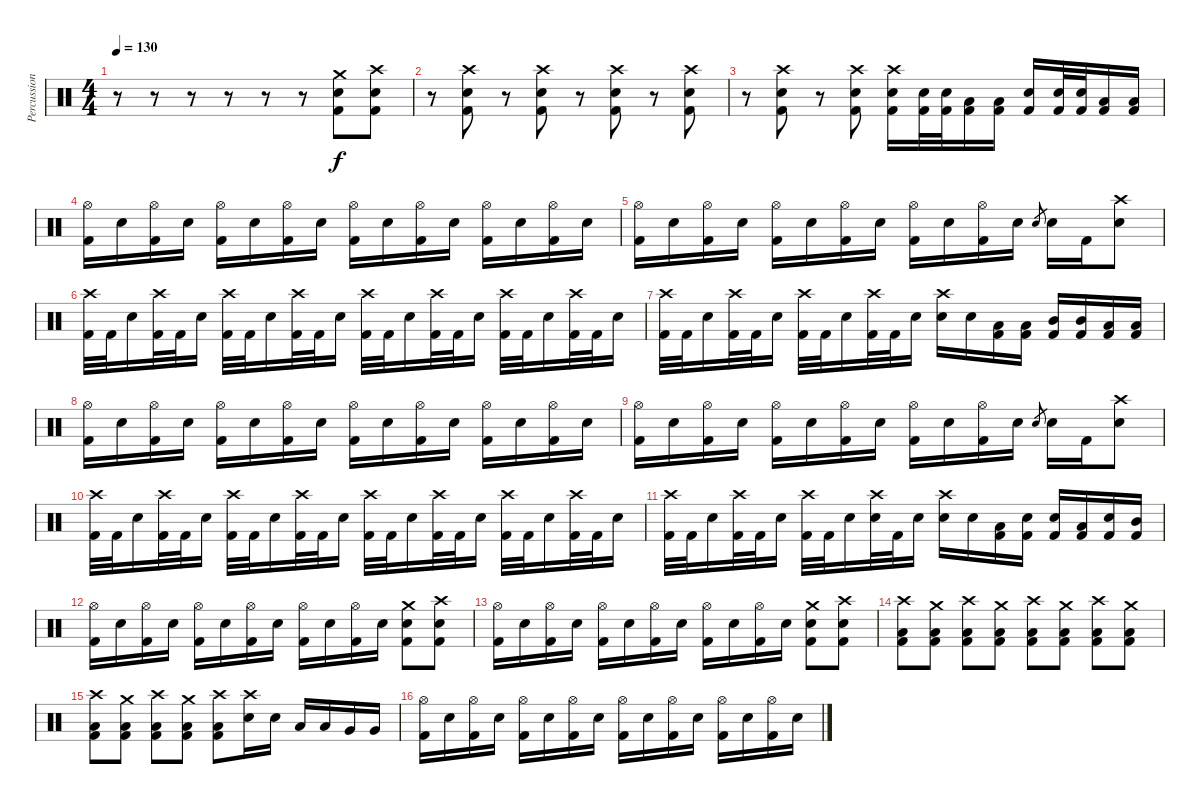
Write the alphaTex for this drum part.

\track ("Percussion" "Percussion") {instrument percussion}
\staff {score}
\articulation defaults
\ts (4 4)
\tempo 130
\clef neutral
\ks c
r.8{dy f} r.8 r.8 r.8 r.8 r.8 ("Crash medium (hit)" "Electric Snare (hit)" "Kick (hit) 2").8 ("Crash high (hit)" "Electric Snare (hit)" "Kick (hit) 2").8 |
r.8 ("Crash high (hit)" "Electric Snare (hit)" "Kick (hit) 2").8 r.8 ("Crash high (hit)" "Electric Snare (hit)" "Kick (hit) 2").8 r.8 ("Crash high (hit)" "Electric Snare (hit)" "Kick (hit) 2").8 r.8 ("Crash high (hit)" "Electric Snare (hit)" "Kick (hit) 2").8 |
r.8 ("Crash high (hit)" "Electric Snare (hit)" "Kick (hit) 2").8 r.8 ("Crash high (hit)" "Electric Snare (hit)" "Kick (hit) 2").8 ("Crash high (hit)" "Electric Snare (hit)" "Kick (hit) 2").16 ("Electric Snare (hit)" "Kick (hit) 2").32 ("Electric Snare (hit)" "Kick (hit) 2").32 ("Low Tom (hit)" "Kick (hit) 2").16 ("Low Tom (hit)" "Kick (hit) 2").16 ("Electric Snare (hit)" "Kick (hit) 2").16 ("Electric Snare (hit)" "Kick (hit) 2").32 ("Electric Snare (hit)" "Kick (hit) 2").32 ("Low Tom (hit)" "Kick (hit) 2").16 ("Low Tom (hit)" "Kick (hit) 2").16 |
("Hi-Hat (open)" "Kick (hit) 2").16 "Electric Snare (hit)".16 ("Hi-Hat (open)" "Kick (hit) 2").16 "Electric Snare (hit)".16 ("Hi-Hat (open)" "Kick (hit) 2").16 "Electric Snare (hit)".16 ("Hi-Hat (open)" "Kick (hit) 2").16 "Electric Snare (hit)".16 ("Hi-Hat (open)" "Kick (hit) 2").16 "Electric Snare (hit)".16 ("Hi-Hat (open)" "Kick (hit) 2").16 "Electric Snare (hit)".16 ("Hi-Hat (open)" "Kick (hit) 2").16 "Electric Snare (hit)".16 ("Hi-Hat (open)" "Kick (hit) 2").16 "Electric Snare (hit)".16 |
("Hi-Hat (open)" "Kick (hit) 2").16 "Electric Snare (hit)".16 ("Hi-Hat (open)" "Kick (hit) 2").16 "Electric Snare (hit)".16 ("Hi-Hat (open)" "Kick (hit) 2").16 "Electric Snare (hit)".16 ("Hi-Hat (open)" "Kick (hit) 2").16 "Electric Snare (hit)".16 ("Hi-Hat (open)" "Kick (hit) 2").16 "Electric Snare (hit)".16 ("Hi-Hat (open)" "Kick (hit) 2").16 "Electric Snare (hit)".16 "Electric Snare (hit)".8{gr} "Electric Snare (hit)".16 "Kick (hit) 2".16 ("Crash high (hit)" "Electric Snare (hit)").8 |
("Crash high (hit)" "Kick (hit) 2").32 "Kick (hit) 2".32 "Electric Snare (hit)".16 ("Crash high (hit)" "Kick (hit) 2").32 "Kick (hit) 2".32 "Electric Snare (hit)".16 ("Crash high (hit)" "Kick (hit) 2").32 "Kick (hit) 2".32 "Electric Snare (hit)".16 ("Crash high (hit)" "Kick (hit) 2").32 "Kick (hit) 2".32 "Electric Snare (hit)".16 ("Crash high (hit)" "Kick (hit) 2").32 "Kick (hit) 2".32 "Electric Snare (hit)".16 ("Crash high (hit)" "Kick (hit) 2").32 "Kick (hit) 2".32 "Electric Snare (hit)".16 ("Crash high (hit)" "Kick (hit) 2").32 "Kick (hit) 2".32 "Electric Snare (hit)".16 ("Crash high (hit)" "Kick (hit) 2").32 "Kick (hit) 2".32 "Electric Snare (hit)".16 |
("Crash high (hit)" "Kick (hit) 2").32 "Kick (hit) 2".32 "Electric Snare (hit)".16 ("Crash high (hit)" "Kick (hit) 2").32 "Kick (hit) 2".32 "Electric Snare (hit)".16 ("Crash high (hit)" "Kick (hit) 2").32 "Kick (hit) 2".32 "Electric Snare (hit)".16 ("Crash high (hit)" "Kick (hit) 2").32 "Kick (hit) 2".32 "Electric Snare (hit)".16 ("Crash high (hit)" "Electric Snare (hit)").16 "Electric Snare (hit)".16 ("Low Tom (hit)" "Kick (hit) 2").16 ("Low Tom (hit)" "Kick (hit) 2").16 ("Mid Tom (hit)" "Kick (hit) 2").16 ("Mid Tom (hit)" "Kick (hit) 2").16 ("Low Tom (hit)" "Kick (hit) 2").16 ("Low Tom (hit)" "Kick (hit) 2").16 |
("Hi-Hat (open)" "Kick (hit) 2").16 "Electric Snare (hit)".16 ("Hi-Hat (open)" "Kick (hit) 2").16 "Electric Snare (hit)".16 ("Hi-Hat (open)" "Kick (hit) 2").16 "Electric Snare (hit)".16 ("Hi-Hat (open)" "Kick (hit) 2").16 "Electric Snare (hit)".16 ("Hi-Hat (open)" "Kick (hit) 2").16 "Electric Snare (hit)".16 ("Hi-Hat (open)" "Kick (hit) 2").16 "Electric Snare (hit)".16 ("Hi-Hat (open)" "Kick (hit) 2").16 "Electric Snare (hit)".16 ("Hi-Hat (open)" "Kick (hit) 2").16 "Electric Snare (hit)".16 |
("Hi-Hat (open)" "Kick (hit) 2").16 "Electric Snare (hit)".16 ("Hi-Hat (open)" "Kick (hit) 2").16 "Electric Snare (hit)".16 ("Hi-Hat (open)" "Kick (hit) 2").16 "Electric Snare (hit)".16 ("Hi-Hat (open)" "Kick (hit) 2").16 "Electric Snare (hit)".16 ("Hi-Hat (open)" "Kick (hit) 2").16 "Electric Snare (hit)".16 ("Hi-Hat (open)" "Kick (hit) 2").16 "Electric Snare (hit)".16 "Electric Snare (hit)".8{gr} "Electric Snare (hit)".16 "Kick (hit) 2".16 ("Crash high (hit)" "Electric Snare (hit)").8 |
("Crash high (hit)" "Kick (hit) 2").32 "Kick (hit) 2".32 "Electric Snare (hit)".16 ("Crash high (hit)" "Kick (hit) 2").32 "Kick (hit) 2".32 "Electric Snare (hit)".16 ("Crash high (hit)" "Kick (hit) 2").32 "Kick (hit) 2".32 "Electric Snare (hit)".16 ("Crash high (hit)" "Kick (hit) 2").32 "Kick (hit) 2".32 "Electric Snare (hit)".16 ("Crash high (hit)" "Kick (hit) 2").32 "Kick (hit) 2".32 "Electric Snare (hit)".16 ("Crash high (hit)" "Kick (hit) 2").32 "Kick (hit) 2".32 "Electric Snare (hit)".16 ("Crash high (hit)" "Kick (hit) 2").32 "Kick (hit) 2".32 "Electric Snare (hit)".16 ("Crash high (hit)" "Kick (hit) 2").32 "Kick (hit) 2".32 "Electric Snare (hit)".16 |
("Crash high (hit)" "Kick (hit) 2").32 "Kick (hit) 2".32 "Electric Snare (hit)".16 ("Crash high (hit)" "Kick (hit) 2").32 "Kick (hit) 2".32 "Electric Snare (hit)".16 ("Crash high (hit)" "Kick (hit) 2").32 "Kick (hit) 2".32 "Electric Snare (hit)".16 ("Crash high (hit)" "Electric Snare (hit)").32 "Kick (hit) 2".32 "Electric Snare (hit)".16 ("Crash high (hit)" "Electric Snare (hit)").16 "Electric Snare (hit)".16 ("Low Tom (hit)" "Kick (hit) 2").16 ("Electric Snare (hit)" "Kick (hit) 2").16 ("Electric Snare (hit)" "Kick (hit) 2").16 ("Low Tom (hit)" "Kick (hit) 2").16 ("Electric Snare (hit)" "Kick (hit) 2").16 ("Mid Tom (hit)" "Kick (hit) 2").16 |
("Hi-Hat (open)" "Kick (hit) 2").16 "Electric Snare (hit)".16 ("Hi-Hat (open)" "Kick (hit) 2").16 "Electric Snare (hit)".16 ("Hi-Hat (open)" "Kick (hit) 2").16 "Electric Snare (hit)".16 ("Hi-Hat (open)" "Kick (hit) 2").16 "Electric Snare (hit)".16 ("Hi-Hat (open)" "Kick (hit) 2").16 "Electric Snare (hit)".16 ("Hi-Hat (open)" "Kick (hit) 2").16 "Electric Snare (hit)".16 ("Electric Snare (hit)" "Crash medium (hit)" "Kick (hit) 2").8 ("Electric Snare (hit)" "Crash high (hit)" "Kick (hit) 2").8 |
("Hi-Hat (open)" "Kick (hit) 2").16 "Electric Snare (hit)".16 ("Hi-Hat (open)" "Kick (hit) 2").16 "Electric Snare (hit)".16 ("Hi-Hat (open)" "Kick (hit) 2").16 "Electric Snare (hit)".16 ("Hi-Hat (open)" "Kick (hit) 2").16 "Electric Snare (hit)".16 ("Hi-Hat (open)" "Kick (hit) 2").16 "Electric Snare (hit)".16 ("Hi-Hat (open)" "Kick (hit) 2").16 "Electric Snare (hit)".16 ("Electric Snare (hit)" "Crash medium (hit)" "Kick (hit) 2").8 ("Electric Snare (hit)" "Crash high (hit)" "Kick (hit) 2").8 |
("Crash high (hit)" "Low Tom (hit)" "Kick (hit) 2").8 ("Crash medium (hit)" "Low Tom (hit)" "Kick (hit) 2").8 ("Crash high (hit)" "Low Tom (hit)" "Kick (hit) 2").8 ("Crash medium (hit)" "Low Tom (hit)" "Kick (hit) 2").8 ("Crash high (hit)" "Low Tom (hit)" "Kick (hit) 2").8 ("Crash medium (hit)" "Low Tom (hit)" "Kick (hit) 2").8 ("Crash high (hit)" "Low Tom (hit)" "Kick (hit) 2").8 ("Crash medium (hit)" "Low Tom (hit)" "Kick (hit) 2").8 |
("Crash high (hit)" "Low Tom (hit)" "Kick (hit) 2").8 ("Crash medium (hit)" "Low Tom (hit)" "Kick (hit) 2").8 ("Crash high (hit)" "Low Tom (hit)" "Kick (hit) 2").8 ("Crash medium (hit)" "Low Tom (hit)" "Kick (hit) 2").8 ("Crash high (hit)" "Low Tom (hit)" "Kick (hit) 2").8 ("Crash high (hit)" "Electric Snare (hit)").16 "Electric Snare (hit)".16 "Low Tom (hit)".16 "Low Tom (hit)".16 "Very Low Tom (hit)".16 "Very Low Tom (hit)".16 |
("Hi-Hat (open)" "Kick (hit) 2").16 "Electric Snare (hit)".16 ("Hi-Hat (open)" "Kick (hit) 2").16 "Electric Snare (hit)".16 ("Hi-Hat (open)" "Kick (hit) 2").16 "Electric Snare (hit)".16 ("Hi-Hat (open)" "Kick (hit) 2").16 "Electric Snare (hit)".16 ("Hi-Hat (open)" "Kick (hit) 2").16 "Electric Snare (hit)".16 ("Hi-Hat (open)" "Kick (hit) 2").16 "Electric Snare (hit)".16 ("Hi-Hat (open)" "Kick (hit) 2").16 "Electric Snare (hit)".16 ("Hi-Hat (open)" "Kick (hit) 2").16 "Electric Snare (hit)".16
